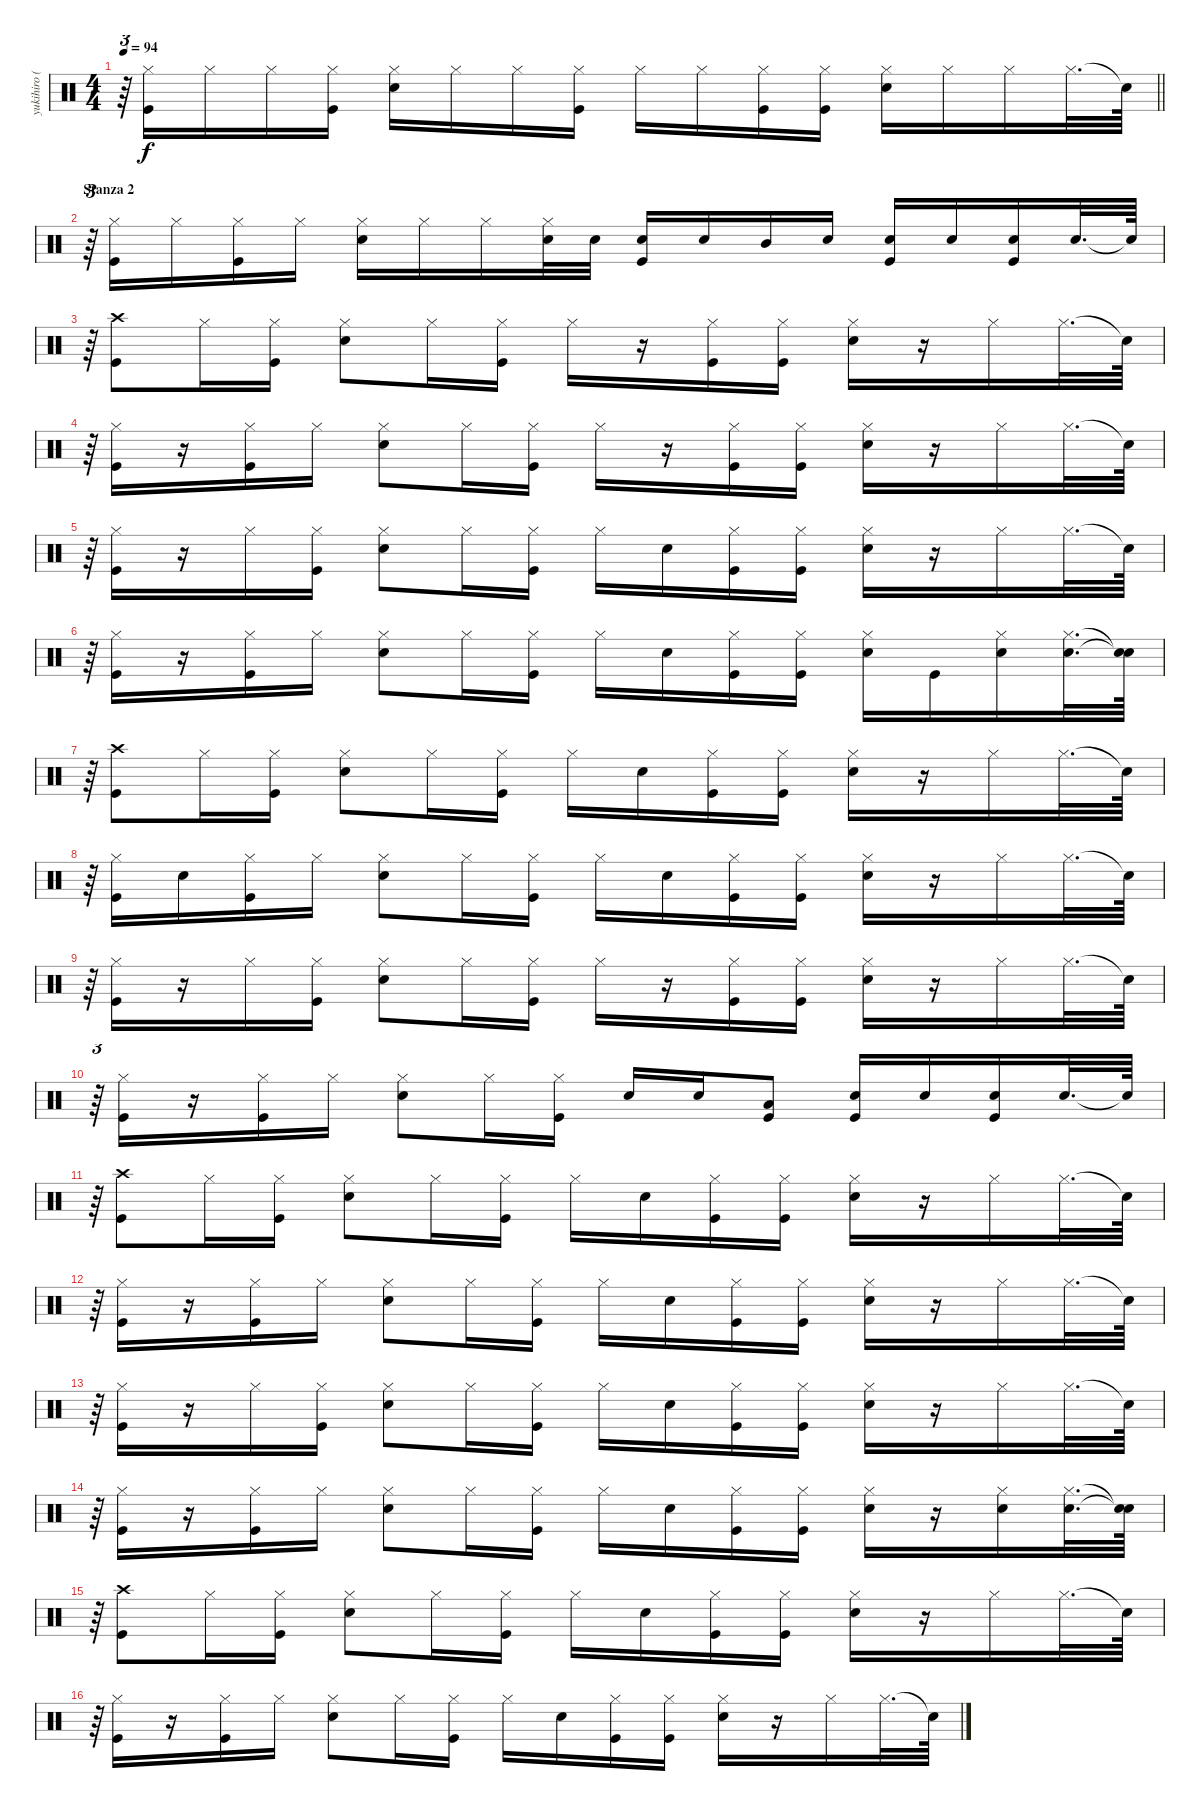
\track ("yukihiro (Drums)" "yukihiro (") {instrument percussion}
\staff {score}
\articulation defaults
\ts (4 4)
\tempo 94
\clef neutral
\barLineRight lightlight
\ks c
r.64{tu (3 2) dy f} ("Kick (hit)" "Hi-Hat (closed)").16 "Hi-Hat (closed)".16 "Hi-Hat (closed)".16 ("Kick (hit)" "Hi-Hat (closed)").16 ("Electric Snare (hit)" "Hi-Hat (closed)").16 "Hi-Hat (closed)".16 "Hi-Hat (closed)".16 ("Kick (hit)" "Hi-Hat (closed)").16 "Hi-Hat (closed)".16 "Hi-Hat (closed)".16 ("Kick (hit)" "Hi-Hat (closed)").16 ("Kick (hit)" "Hi-Hat (closed)").16 ("Electric Snare (hit)" "Hi-Hat (closed)").16 "Hi-Hat (closed)".16 "Hi-Hat (closed)".16 "Hi-Hat (closed)".32{d} "Snare (hit)"{t}.64 |
\section ("" "Stanza 2")
r.64{tu (3 2)} ("Kick (hit)" "Hi-Hat (closed)").16 "Hi-Hat (closed)".16 ("Kick (hit)" "Hi-Hat (closed)").16 "Hi-Hat (closed)".16 ("Electric Snare (hit)" "Hi-Hat (closed)").16 "Hi-Hat (closed)".16 "Hi-Hat (closed)".16 ("Electric Snare (hit)" "Hi-Hat (closed)").32 "Electric Snare (hit)".32 ("Kick (hit)" "Electric Snare (hit)").16 "Electric Snare (hit)".16 "Mid Tom (hit)".16 "Electric Snare (hit)".16 ("Electric Snare (hit)" "Kick (hit)").16 "Electric Snare (hit)".16 ("Kick (hit)" "Electric Snare (hit)").16 "Electric Snare (hit)".32{d} "Snare (hit)"{t}.64 |
r.64{tu (3 2)} ("Kick (hit)" "Crash high (hit)").8 "Hi-Hat (closed)".16 ("Kick (hit)" "Hi-Hat (closed)").16 ("Electric Snare (hit)" "Hi-Hat (closed)").8 "Hi-Hat (closed)".16 ("Kick (hit)" "Hi-Hat (closed)").16 "Hi-Hat (closed)".16 r.16 ("Kick (hit)" "Hi-Hat (closed)").16 ("Kick (hit)" "Hi-Hat (closed)").16 ("Electric Snare (hit)" "Hi-Hat (closed)").16 r.16 "Hi-Hat (closed)".16 "Hi-Hat (closed)".32{d} "Snare (hit)"{t}.64 |
r.64{tu (3 2)} ("Kick (hit)" "Hi-Hat (closed)").16 r.16 ("Kick (hit)" "Hi-Hat (closed)").16 "Hi-Hat (closed)".16 ("Electric Snare (hit)" "Hi-Hat (closed)").8 "Hi-Hat (closed)".16 ("Kick (hit)" "Hi-Hat (closed)").16 "Hi-Hat (closed)".16 r.16 ("Kick (hit)" "Hi-Hat (closed)").16 ("Kick (hit)" "Hi-Hat (closed)").16 ("Electric Snare (hit)" "Hi-Hat (closed)").16 r.16 "Hi-Hat (closed)".16 "Hi-Hat (closed)".32{d} "Snare (hit)"{t}.64 |
r.64{tu (3 2)} ("Kick (hit)" "Hi-Hat (closed)").16 r.16 "Hi-Hat (closed)".16 ("Kick (hit)" "Hi-Hat (closed)").16 ("Electric Snare (hit)" "Hi-Hat (closed)").8 "Hi-Hat (closed)".16 ("Kick (hit)" "Hi-Hat (closed)").16 "Hi-Hat (closed)".16 "Electric Snare (hit)".16 ("Kick (hit)" "Hi-Hat (closed)").16 ("Kick (hit)" "Hi-Hat (closed)").16 ("Electric Snare (hit)" "Hi-Hat (closed)").16 r.16 "Hi-Hat (closed)".16 "Hi-Hat (closed)".32{d} "Snare (hit)"{t}.64 |
r.64{tu (3 2)} ("Kick (hit)" "Hi-Hat (closed)").16 r.16 ("Kick (hit)" "Hi-Hat (closed)").16 "Hi-Hat (closed)".16 ("Electric Snare (hit)" "Hi-Hat (closed)").8 "Hi-Hat (closed)".16 ("Kick (hit)" "Hi-Hat (closed)").16 "Hi-Hat (closed)".16 "Electric Snare (hit)".16 ("Kick (hit)" "Hi-Hat (closed)").16 ("Kick (hit)" "Hi-Hat (closed)").16 ("Electric Snare (hit)" "Hi-Hat (closed)").16 "Kick (hit)".16 ("Electric Snare (hit)" "Hi-Hat (closed)").16 ("Electric Snare (hit)" "Hi-Hat (closed)").32{d} ("Snare (hit)"{t} "Snare (hit)"{t}).64 |
r.64{tu (3 2)} ("Kick (hit)" "Crash high (hit)").8 "Hi-Hat (closed)".16 ("Kick (hit)" "Hi-Hat (closed)").16 ("Electric Snare (hit)" "Hi-Hat (closed)").8 "Hi-Hat (closed)".16 ("Kick (hit)" "Hi-Hat (closed)").16 "Hi-Hat (closed)".16 "Electric Snare (hit)".16 ("Kick (hit)" "Hi-Hat (closed)").16 ("Kick (hit)" "Hi-Hat (closed)").16 ("Electric Snare (hit)" "Hi-Hat (closed)").16 r.16 "Hi-Hat (closed)".16 "Hi-Hat (closed)".32{d} "Snare (hit)"{t}.64 |
r.64{tu (3 2)} ("Kick (hit)" "Hi-Hat (closed)").16 "Electric Snare (hit)".16 ("Kick (hit)" "Hi-Hat (closed)").16 "Hi-Hat (closed)".16 ("Electric Snare (hit)" "Hi-Hat (closed)").8 "Hi-Hat (closed)".16 ("Kick (hit)" "Hi-Hat (closed)").16 "Hi-Hat (closed)".16 "Electric Snare (hit)".16 ("Kick (hit)" "Hi-Hat (closed)").16 ("Kick (hit)" "Hi-Hat (closed)").16 ("Electric Snare (hit)" "Hi-Hat (closed)").16 r.16 "Hi-Hat (closed)".16 "Hi-Hat (closed)".32{d} "Snare (hit)"{t}.64 |
r.64{tu (3 2)} ("Kick (hit)" "Hi-Hat (closed)").16 r.16 "Hi-Hat (closed)".16 ("Kick (hit)" "Hi-Hat (closed)").16 ("Electric Snare (hit)" "Hi-Hat (closed)").8 "Hi-Hat (closed)".16 ("Kick (hit)" "Hi-Hat (closed)").16 "Hi-Hat (closed)".16 r.16 ("Kick (hit)" "Hi-Hat (closed)").16 ("Kick (hit)" "Hi-Hat (closed)").16 ("Electric Snare (hit)" "Hi-Hat (closed)").16 r.16 "Hi-Hat (closed)".16 "Hi-Hat (closed)".32{d} "Snare (hit)"{t}.64 |
r.64{tu (3 2)} ("Kick (hit)" "Hi-Hat (closed)").16 r.16 ("Kick (hit)" "Hi-Hat (closed)").16 "Hi-Hat (closed)".16 ("Electric Snare (hit)" "Hi-Hat (closed)").8 "Hi-Hat (closed)".16 ("Kick (hit)" "Hi-Hat (closed)").16 "Electric Snare (hit)".16 "Electric Snare (hit)".16 ("Kick (hit)" "Low Tom (hit)").8 ("Kick (hit)" "Electric Snare (hit)").16 "Electric Snare (hit)".16 ("Kick (hit)" "Electric Snare (hit)").16 "Electric Snare (hit)".32{d} "Snare (hit)"{t}.64 |
r.64{tu (3 2)} ("Crash high (hit)" "Kick (hit)").8 "Hi-Hat (closed)".16 ("Kick (hit)" "Hi-Hat (closed)").16 ("Electric Snare (hit)" "Hi-Hat (closed)").8 "Hi-Hat (closed)".16 ("Kick (hit)" "Hi-Hat (closed)").16 "Hi-Hat (closed)".16 "Electric Snare (hit)".16 ("Kick (hit)" "Hi-Hat (closed)").16 ("Kick (hit)" "Hi-Hat (closed)").16 ("Electric Snare (hit)" "Hi-Hat (closed)").16 r.16 "Hi-Hat (closed)".16 "Hi-Hat (closed)".32{d} "Snare (hit)"{t}.64 |
r.64{tu (3 2)} ("Kick (hit)" "Hi-Hat (closed)").16 r.16 ("Kick (hit)" "Hi-Hat (closed)").16 "Hi-Hat (closed)".16 ("Electric Snare (hit)" "Hi-Hat (closed)").8 "Hi-Hat (closed)".16 ("Kick (hit)" "Hi-Hat (closed)").16 "Hi-Hat (closed)".16 "Electric Snare (hit)".16 ("Kick (hit)" "Hi-Hat (closed)").16 ("Kick (hit)" "Hi-Hat (closed)").16 ("Electric Snare (hit)" "Hi-Hat (closed)").16 r.16 "Hi-Hat (closed)".16 "Hi-Hat (closed)".32{d} "Snare (hit)"{t}.64 |
r.64{tu (3 2)} ("Kick (hit)" "Hi-Hat (closed)").16 r.16 "Hi-Hat (closed)".16 ("Kick (hit)" "Hi-Hat (closed)").16 ("Electric Snare (hit)" "Hi-Hat (closed)").8 "Hi-Hat (closed)".16 ("Kick (hit)" "Hi-Hat (closed)").16 "Hi-Hat (closed)".16 "Electric Snare (hit)".16 ("Kick (hit)" "Hi-Hat (closed)").16 ("Kick (hit)" "Hi-Hat (closed)").16 ("Electric Snare (hit)" "Hi-Hat (closed)").16 r.16 "Hi-Hat (closed)".16 "Hi-Hat (closed)".32{d} "Snare (hit)"{t}.64 |
r.64{tu (3 2)} ("Kick (hit)" "Hi-Hat (closed)").16 r.16 ("Kick (hit)" "Hi-Hat (closed)").16 "Hi-Hat (closed)".16 ("Electric Snare (hit)" "Hi-Hat (closed)").8 "Hi-Hat (closed)".16 ("Kick (hit)" "Hi-Hat (closed)").16 "Hi-Hat (closed)".16 "Electric Snare (hit)".16 ("Kick (hit)" "Hi-Hat (closed)").16 ("Kick (hit)" "Hi-Hat (closed)").16 ("Electric Snare (hit)" "Hi-Hat (closed)").16 r.16 ("Electric Snare (hit)" "Hi-Hat (closed)").16 ("Electric Snare (hit)" "Hi-Hat (closed)").32{d} ("Snare (hit)"{t} "Snare (hit)"{t}).64 |
r.64{tu (3 2)} ("Kick (hit)" "Crash high (hit)").8 "Hi-Hat (closed)".16 ("Kick (hit)" "Hi-Hat (closed)").16 ("Electric Snare (hit)" "Hi-Hat (closed)").8 "Hi-Hat (closed)".16 ("Kick (hit)" "Hi-Hat (closed)").16 "Hi-Hat (closed)".16 "Electric Snare (hit)".16 ("Kick (hit)" "Hi-Hat (closed)").16 ("Kick (hit)" "Hi-Hat (closed)").16 ("Electric Snare (hit)" "Hi-Hat (closed)").16 r.16 "Hi-Hat (closed)".16 "Hi-Hat (closed)".32{d} "Snare (hit)"{t}.64 |
r.64{tu (3 2)} ("Kick (hit)" "Hi-Hat (closed)").16 r.16 ("Kick (hit)" "Hi-Hat (closed)").16 "Hi-Hat (closed)".16 ("Electric Snare (hit)" "Hi-Hat (closed)").8 "Hi-Hat (closed)".16 ("Kick (hit)" "Hi-Hat (closed)").16 "Hi-Hat (closed)".16 "Electric Snare (hit)".16 ("Kick (hit)" "Hi-Hat (closed)").16 ("Kick (hit)" "Hi-Hat (closed)").16 ("Electric Snare (hit)" "Hi-Hat (closed)").16 r.16 "Hi-Hat (closed)".16 "Hi-Hat (closed)".32{d} "Snare (hit)"{t}.64
